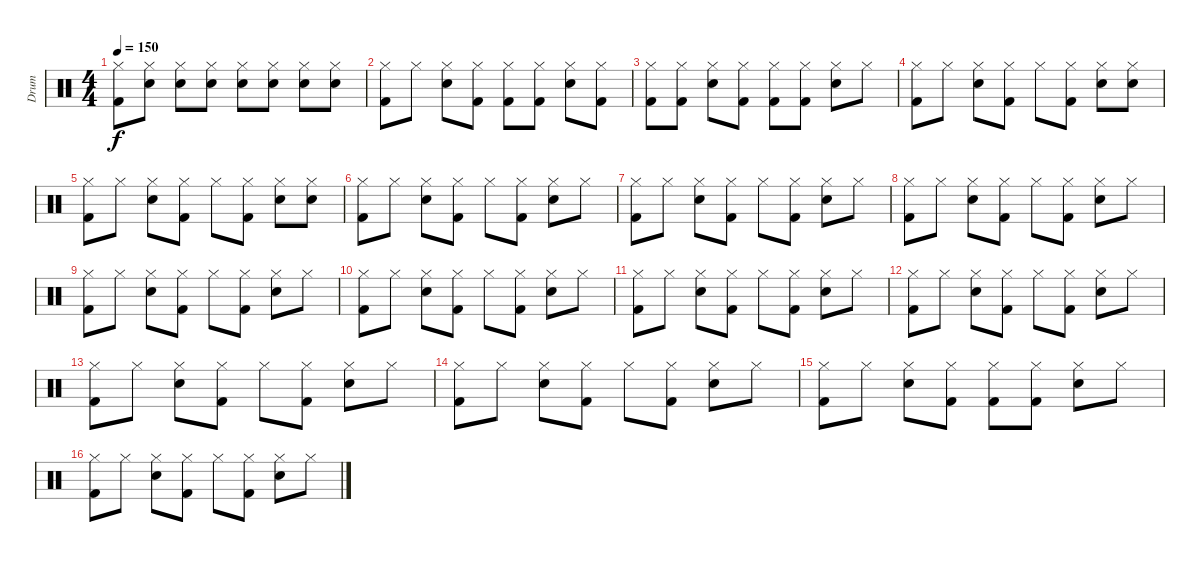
\track ("Drum" "Drum") {instrument percussion}
\staff {score}
\articulation defaults
\ts (4 4)
\tempo 150
\clef neutral
\ks c
("Kick (hit) 2" "Hi-Hat (closed)").8{dy f} ("Hi-Hat (closed)" "Snare (hit) 2").8 ("Snare (hit) 2" "Hi-Hat (closed)").8 ("Hi-Hat (closed)" "Snare (hit) 2").8 ("Hi-Hat (closed)" "Snare (hit) 2").8 ("Hi-Hat (closed)" "Snare (hit) 2").8 ("Hi-Hat (closed)" "Snare (hit) 2").8 ("Hi-Hat (closed)" "Snare (hit) 2").8 |
("Hi-Hat (closed)" "Kick (hit) 2").8 "Hi-Hat (closed)".8 ("Hi-Hat (closed)" "Snare (hit) 2").8 ("Hi-Hat (closed)" "Kick (hit) 2").8 ("Hi-Hat (closed)" "Kick (hit) 2").8 ("Hi-Hat (closed)" "Kick (hit) 2").8 ("Hi-Hat (closed)" "Snare (hit) 2").8 ("Hi-Hat (closed)" "Kick (hit) 2").8 |
("Hi-Hat (closed)" "Kick (hit) 2").8 ("Hi-Hat (closed)" "Kick (hit) 2").8 ("Hi-Hat (closed)" "Snare (hit) 2").8 ("Hi-Hat (closed)" "Kick (hit) 2").8 ("Hi-Hat (closed)" "Kick (hit) 2").8 ("Hi-Hat (closed)" "Kick (hit) 2").8 ("Hi-Hat (closed)" "Snare (hit) 2").8 "Hi-Hat (closed)".8 |
("Hi-Hat (closed)" "Kick (hit) 2").8 "Hi-Hat (closed)".8 ("Snare (hit) 2" "Hi-Hat (closed)").8 ("Hi-Hat (closed)" "Kick (hit) 2").8 "Hi-Hat (closed)".8 ("Kick (hit) 2" "Hi-Hat (closed)").8 ("Snare (hit) 2" "Hi-Hat (closed)").8 ("Snare (hit) 2" "Hi-Hat (closed)").8 |
("Hi-Hat (closed)" "Kick (hit) 2").8 "Hi-Hat (closed)".8 ("Snare (hit) 2" "Hi-Hat (closed)").8 ("Hi-Hat (closed)" "Kick (hit) 2").8 "Hi-Hat (closed)".8 ("Hi-Hat (closed)" "Kick (hit) 2").8 ("Hi-Hat (closed)" "Snare (hit) 2").8 ("Snare (hit) 2" "Hi-Hat (closed)").8 |
("Hi-Hat (closed)" "Kick (hit) 2").8 "Hi-Hat (closed)".8 ("Snare (hit) 2" "Hi-Hat (closed)").8 ("Hi-Hat (closed)" "Kick (hit) 2").8 "Hi-Hat (closed)".8 ("Hi-Hat (closed)" "Kick (hit) 2").8 ("Hi-Hat (closed)" "Snare (hit) 2").8 "Hi-Hat (closed)".8 |
("Hi-Hat (closed)" "Kick (hit) 2").8 "Hi-Hat (closed)".8 ("Snare (hit) 2" "Hi-Hat (closed)").8 ("Hi-Hat (closed)" "Kick (hit) 2").8 "Hi-Hat (closed)".8 ("Hi-Hat (closed)" "Kick (hit) 2").8 ("Hi-Hat (closed)" "Snare (hit) 2").8 "Hi-Hat (closed)".8 |
("Hi-Hat (closed)" "Kick (hit) 2").8 "Hi-Hat (closed)".8 ("Hi-Hat (closed)" "Snare (hit) 2").8 ("Hi-Hat (closed)" "Kick (hit) 2").8 "Hi-Hat (closed)".8 ("Hi-Hat (closed)" "Kick (hit) 2").8 ("Hi-Hat (closed)" "Snare (hit) 2").8 "Hi-Hat (closed)".8 |
("Hi-Hat (closed)" "Kick (hit) 2").8 "Hi-Hat (closed)".8 ("Hi-Hat (closed)" "Snare (hit) 2").8 ("Hi-Hat (closed)" "Kick (hit) 2").8 "Hi-Hat (closed)".8 ("Hi-Hat (closed)" "Kick (hit) 2").8 ("Hi-Hat (closed)" "Snare (hit) 2").8 "Hi-Hat (closed)".8 |
("Hi-Hat (closed)" "Kick (hit) 2").8 "Hi-Hat (closed)".8 ("Hi-Hat (closed)" "Snare (hit) 2").8 ("Hi-Hat (closed)" "Kick (hit) 2").8 "Hi-Hat (closed)".8 ("Hi-Hat (closed)" "Kick (hit) 2").8 ("Hi-Hat (closed)" "Snare (hit) 2").8 "Hi-Hat (closed)".8 |
("Kick (hit) 2" "Hi-Hat (closed)").8 "Hi-Hat (closed)".8 ("Snare (hit) 2" "Hi-Hat (closed)").8 ("Kick (hit) 2" "Hi-Hat (closed)").8 "Hi-Hat (closed)".8 ("Kick (hit) 2" "Hi-Hat (closed)").8 ("Snare (hit) 2" "Hi-Hat (closed)").8 "Hi-Hat (closed)".8 |
("Kick (hit) 2" "Hi-Hat (closed)").8 "Hi-Hat (closed)".8 ("Snare (hit) 2" "Hi-Hat (closed)").8 ("Kick (hit) 2" "Hi-Hat (closed)").8 "Hi-Hat (closed)".8 ("Kick (hit) 2" "Hi-Hat (closed)").8 ("Snare (hit) 2" "Hi-Hat (closed)").8 "Hi-Hat (closed)".8 |
("Kick (hit) 2" "Hi-Hat (closed)").8 "Hi-Hat (closed)".8 ("Snare (hit) 2" "Hi-Hat (closed)").8 ("Kick (hit) 2" "Hi-Hat (closed)").8 "Hi-Hat (closed)".8 ("Kick (hit) 2" "Hi-Hat (closed)").8 ("Snare (hit) 2" "Hi-Hat (closed)").8 "Hi-Hat (closed)".8 |
("Kick (hit) 2" "Hi-Hat (closed)").8 "Hi-Hat (closed)".8 ("Hi-Hat (closed)" "Snare (hit) 2").8 ("Kick (hit) 2" "Hi-Hat (closed)").8 "Hi-Hat (closed)".8 ("Hi-Hat (closed)" "Kick (hit) 2").8 ("Hi-Hat (closed)" "Snare (hit) 2").8 "Hi-Hat (closed)".8 |
("Hi-Hat (closed)" "Kick (hit) 2").8 "Hi-Hat (closed)".8 ("Hi-Hat (closed)" "Snare (hit) 2").8 ("Hi-Hat (closed)" "Kick (hit) 2").8 ("Hi-Hat (closed)" "Kick (hit) 2").8 ("Hi-Hat (closed)" "Kick (hit) 2").8 ("Hi-Hat (closed)" "Snare (hit) 2").8 "Hi-Hat (closed)".8 |
("Hi-Hat (closed)" "Kick (hit) 2").8 "Hi-Hat (closed)".8 ("Snare (hit) 2" "Hi-Hat (closed)").8 ("Hi-Hat (closed)" "Kick (hit) 2").8 "Hi-Hat (closed)".8 ("Hi-Hat (closed)" "Kick (hit) 2").8 ("Hi-Hat (closed)" "Snare (hit) 2").8 "Hi-Hat (closed)".8
